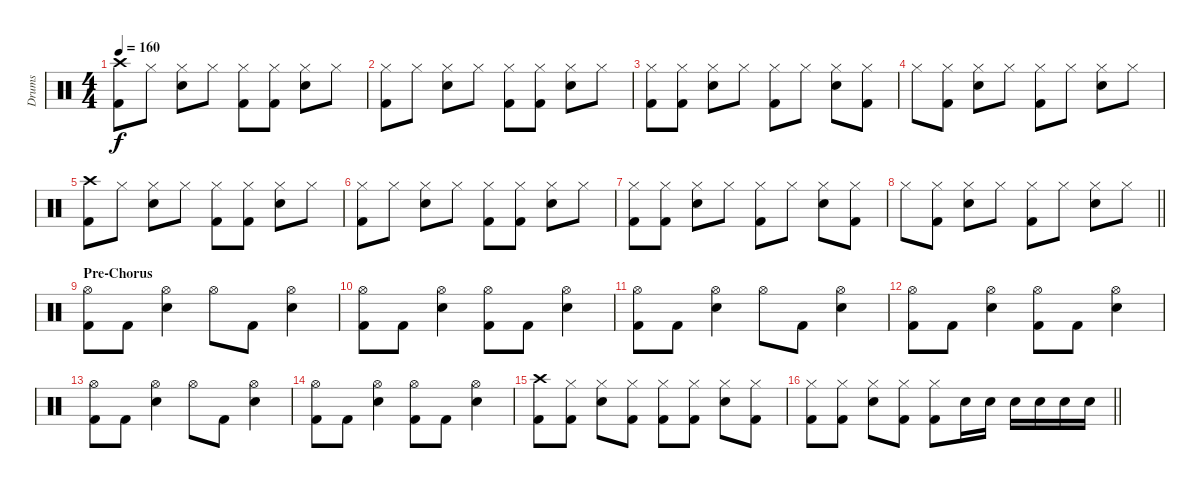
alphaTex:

\track ("Drums" "Drums") {instrument percussion}
\staff {score}
\articulation defaults
\ts (4 4)
\tempo 160
\clef neutral
\ks c
("Crash high (hit)" "Kick (hit) 2").8{dy f} "Hi-Hat (closed)".8 ("Hi-Hat (closed)" "Electric Snare (hit)").8 "Hi-Hat (closed)".8 ("Hi-Hat (closed)" "Kick (hit) 2").8 ("Hi-Hat (closed)" "Kick (hit) 2").8 ("Hi-Hat (closed)" "Electric Snare (hit)").8 "Hi-Hat (closed)".8 |
("Hi-Hat (closed)" "Kick (hit) 2").8 "Hi-Hat (closed)".8 ("Hi-Hat (closed)" "Electric Snare (hit)").8 "Hi-Hat (closed)".8 ("Hi-Hat (closed)" "Kick (hit) 2").8 ("Hi-Hat (closed)" "Kick (hit) 2").8 ("Hi-Hat (closed)" "Electric Snare (hit)").8 "Hi-Hat (closed)".8 |
("Hi-Hat (closed)" "Kick (hit) 2").8 ("Hi-Hat (closed)" "Kick (hit) 2").8 ("Hi-Hat (closed)" "Electric Snare (hit)").8 "Hi-Hat (closed)".8 ("Hi-Hat (closed)" "Kick (hit) 2").8 "Hi-Hat (closed)".8 ("Hi-Hat (closed)" "Electric Snare (hit)").8 ("Hi-Hat (closed)" "Kick (hit) 2").8 |
"Hi-Hat (closed)".8 ("Hi-Hat (closed)" "Kick (hit) 2").8 ("Hi-Hat (closed)" "Electric Snare (hit)").8 "Hi-Hat (closed)".8 ("Hi-Hat (closed)" "Kick (hit) 2").8 "Hi-Hat (closed)".8 ("Hi-Hat (closed)" "Electric Snare (hit)").8 "Hi-Hat (closed)".8 |
("Crash high (hit)" "Kick (hit) 2").8 "Hi-Hat (closed)".8 ("Hi-Hat (closed)" "Electric Snare (hit)").8 "Hi-Hat (closed)".8 ("Hi-Hat (closed)" "Kick (hit) 2").8 ("Hi-Hat (closed)" "Kick (hit) 2").8 ("Hi-Hat (closed)" "Electric Snare (hit)").8 "Hi-Hat (closed)".8 |
("Hi-Hat (closed)" "Kick (hit) 2").8 "Hi-Hat (closed)".8 ("Hi-Hat (closed)" "Electric Snare (hit)").8 "Hi-Hat (closed)".8 ("Hi-Hat (closed)" "Kick (hit) 2").8 ("Hi-Hat (closed)" "Kick (hit) 2").8 ("Hi-Hat (closed)" "Electric Snare (hit)").8 "Hi-Hat (closed)".8 |
("Hi-Hat (closed)" "Kick (hit) 2").8 ("Hi-Hat (closed)" "Kick (hit) 2").8 ("Hi-Hat (closed)" "Electric Snare (hit)").8 "Hi-Hat (closed)".8 ("Hi-Hat (closed)" "Kick (hit) 2").8 "Hi-Hat (closed)".8 ("Hi-Hat (closed)" "Electric Snare (hit)").8 ("Hi-Hat (closed)" "Kick (hit) 2").8 |
\barLineRight lightlight "Hi-Hat (closed)".8
("Hi-Hat (closed)" "Kick (hit) 2").8 ("Hi-Hat (closed)" "Electric Snare (hit)").8 "Hi-Hat (closed)".8 ("Hi-Hat (closed)" "Kick (hit) 2").8 "Hi-Hat (closed)".8 ("Hi-Hat (closed)" "Electric Snare (hit)").8 "Hi-Hat (closed)".8 |
\section ("" "Pre-Chorus")
("Hi-Hat (open)" "Kick (hit) 2").8 "Kick (hit) 2".8 ("Hi-Hat (open)" "Electric Snare (hit)").4 "Hi-Hat (open)".8 "Kick (hit) 2".8 ("Hi-Hat (open)" "Electric Snare (hit)").4 |
("Hi-Hat (open)" "Kick (hit) 2").8 "Kick (hit) 2".8 ("Hi-Hat (open)" "Electric Snare (hit)").4 ("Hi-Hat (open)" "Kick (hit) 2").8 "Kick (hit) 2".8 ("Hi-Hat (open)" "Electric Snare (hit)").4 |
("Hi-Hat (open)" "Kick (hit) 2").8 "Kick (hit) 2".8 ("Hi-Hat (open)" "Electric Snare (hit)").4 "Hi-Hat (open)".8 "Kick (hit) 2".8 ("Hi-Hat (open)" "Electric Snare (hit)").4 |
("Hi-Hat (open)" "Kick (hit) 2").8 "Kick (hit) 2".8 ("Hi-Hat (open)" "Electric Snare (hit)").4 ("Hi-Hat (open)" "Kick (hit) 2").8 "Kick (hit) 2".8 ("Hi-Hat (open)" "Electric Snare (hit)").4 |
("Hi-Hat (open)" "Kick (hit) 2").8 "Kick (hit) 2".8 ("Hi-Hat (open)" "Electric Snare (hit)").4 "Hi-Hat (open)".8 "Kick (hit) 2".8 ("Hi-Hat (open)" "Electric Snare (hit)").4 |
("Hi-Hat (open)" "Kick (hit) 2").8 "Kick (hit) 2".8 ("Hi-Hat (open)" "Electric Snare (hit)").4 ("Hi-Hat (open)" "Kick (hit) 2").8 "Kick (hit) 2".8 ("Hi-Hat (open)" "Electric Snare (hit)").4 |
("Crash high (hit)" "Kick (hit) 2").8 ("Hi-Hat (closed)" "Kick (hit) 2").8 ("Hi-Hat (closed)" "Electric Snare (hit)").8 ("Hi-Hat (closed)" "Kick (hit) 2").8 ("Hi-Hat (closed)" "Kick (hit) 2").8 ("Hi-Hat (closed)" "Kick (hit) 2").8 ("Hi-Hat (closed)" "Electric Snare (hit)").8 ("Hi-Hat (closed)" "Kick (hit) 2").8 |
\barLineRight lightlight
("Hi-Hat (closed)" "Kick (hit) 2").8 ("Hi-Hat (closed)" "Kick (hit) 2").8 ("Hi-Hat (closed)" "Electric Snare (hit)").8 ("Hi-Hat (closed)" "Kick (hit) 2").8 ("Hi-Hat (closed)" "Kick (hit) 2").8 "Electric Snare (hit)".16 "Electric Snare (hit)".16 "Electric Snare (hit)".16 "Electric Snare (hit)".16 "Electric Snare (hit)".16 "Electric Snare (hit)".16
